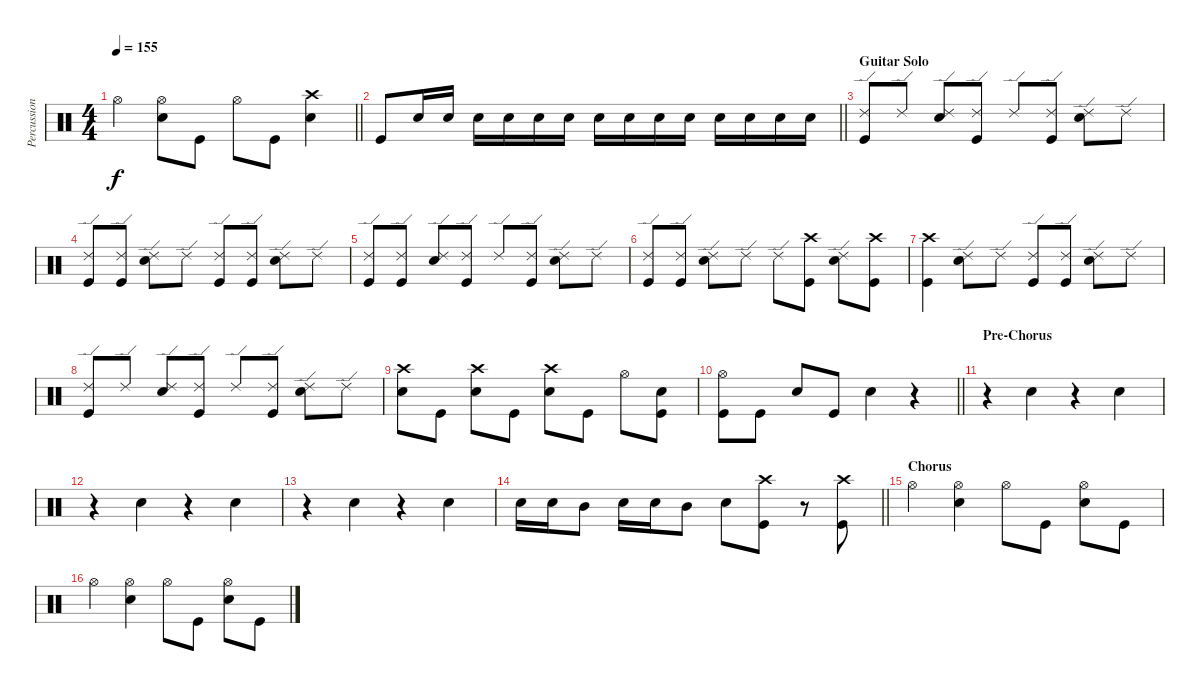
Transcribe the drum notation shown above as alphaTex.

\track ("Percussion" "Percussion") {instrument percussion}
\staff {score}
\articulation defaults
\ts (4 4)
\tempo 155
\clef neutral
\barLineRight lightlight
\ks c "Hi-Hat (open)".4{dy f}
("Hi-Hat (open)" "Snare (hit) 2").8 "Kick (hit)".8 "Hi-Hat (open)".8 "Kick (hit)".8 ("Crash high (hit)" "Snare (hit) 2").4 |
\section ("" "")
\barLineRight lightlight "Kick (hit)".8 "Snare (hit) 2".16 "Snare (hit) 2".16 "Snare (hit) 2".16 "Snare (hit) 2".16 "Snare (hit) 2".16 "Snare (hit) 2".16 "Snare (hit) 2".16 "Snare (hit) 2".16 "Snare (hit) 2".16 "Snare (hit) 2".16 "Snare (hit) 2".16 "Snare (hit) 2".16 "Snare (hit) 2".16 "Snare (hit) 2".16
|
\section ("" "Guitar Solo")
("Ride (edge) 2" "Kick (hit)").8 "Ride (edge) 2".8 ("Ride (edge) 2" "Snare (hit) 2").8 ("Ride (edge) 2" "Kick (hit)").8 "Ride (edge) 2".8 ("Ride (edge) 2" "Kick (hit)").8 ("Ride (edge) 2" "Snare (hit) 2").8 "Ride (edge) 2".8 |
("Ride (edge) 2" "Kick (hit)").8 ("Ride (edge) 2" "Kick (hit)").8 ("Ride (edge) 2" "Snare (hit) 2").8 "Ride (edge) 2".8 ("Ride (edge) 2" "Kick (hit)").8 ("Ride (edge) 2" "Kick (hit)").8 ("Ride (edge) 2" "Snare (hit) 2").8 "Ride (edge) 2".8 |
("Ride (edge) 2" "Kick (hit)").8 ("Ride (edge) 2" "Kick (hit)").8 ("Ride (edge) 2" "Snare (hit) 2").8 ("Ride (edge) 2" "Kick (hit)").8 "Ride (edge) 2".8 ("Ride (edge) 2" "Kick (hit)").8 ("Ride (edge) 2" "Snare (hit) 2").8 "Ride (edge) 2".8 |
("Ride (edge) 2" "Kick (hit)").8 ("Ride (edge) 2" "Kick (hit)").8 ("Ride (edge) 2" "Snare (hit) 2").8 "Ride (edge) 2".8 "Ride (edge) 2".8 ("Crash high (hit)" "Kick (hit)").8 ("Ride (edge) 2" "Snare (hit) 2").8 ("Crash high (hit)" "Kick (hit)").8 |
("Crash high (hit)" "Kick (hit)").4 ("Ride (edge) 2" "Snare (hit) 2").8 "Ride (edge) 2".8 ("Ride (edge) 2" "Kick (hit)").8 ("Ride (edge) 2" "Kick (hit)").8 ("Ride (edge) 2" "Snare (hit) 2").8 "Ride (edge) 2".8 |
("Ride (edge) 2" "Kick (hit)").8 "Ride (edge) 2".8 ("Ride (edge) 2" "Snare (hit) 2").8 ("Ride (edge) 2" "Kick (hit)").8 "Ride (edge) 2".8 ("Ride (edge) 2" "Kick (hit)").8 ("Ride (edge) 2" "Snare (hit) 2").8 "Ride (edge) 2".8 |
("Crash high (hit)" "Snare (hit) 2").8 "Kick (hit)".8 ("Crash high (hit)" "Snare (hit) 2").8 "Kick (hit)".8 ("Crash high (hit)" "Snare (hit) 2").8 "Kick (hit)".8 "Hi-Hat (open)".8 ("Snare (hit) 2" "Kick (hit)").8 |
\barLineRight lightlight
("Hi-Hat (open)" "Kick (hit)").8 "Kick (hit)".8 "Snare (hit) 2".8 "Kick (hit)".8 "Snare (hit) 2".4 r.4 |
\section ("" "Pre-Chorus")
r.4 "Snare (hit) 2".4 r.4 "Snare (hit) 2".4 |
r.4 "Snare (hit) 2".4 r.4 "Snare (hit) 2".4 |
r.4 "Snare (hit) 2".4 r.4 "Snare (hit) 2".4 |
\barLineRight lightlight "Snare (hit) 2".16 "Snare (hit) 2".16 "Mid Tom (hit)".8 "Snare (hit) 2".16 "Snare (hit) 2".16 "Mid Tom (hit)".8 "Snare (hit) 2".8
("Crash high (hit)" "Kick (hit)").8 r.8 ("Crash high (hit)" "Kick (hit)").8 |
\section ("" "Chorus")
"Hi-Hat (open)".4 ("Hi-Hat (open)" "Snare (hit) 2").4 "Hi-Hat (open)".8 "Kick (hit)".8 ("Hi-Hat (open)" "Snare (hit) 2").8 "Kick (hit)".8 |
"Hi-Hat (open)".4 ("Hi-Hat (open)" "Snare (hit) 2").4 "Hi-Hat (open)".8 "Kick (hit)".8 ("Hi-Hat (open)" "Snare (hit) 2").8 "Kick (hit)".8
